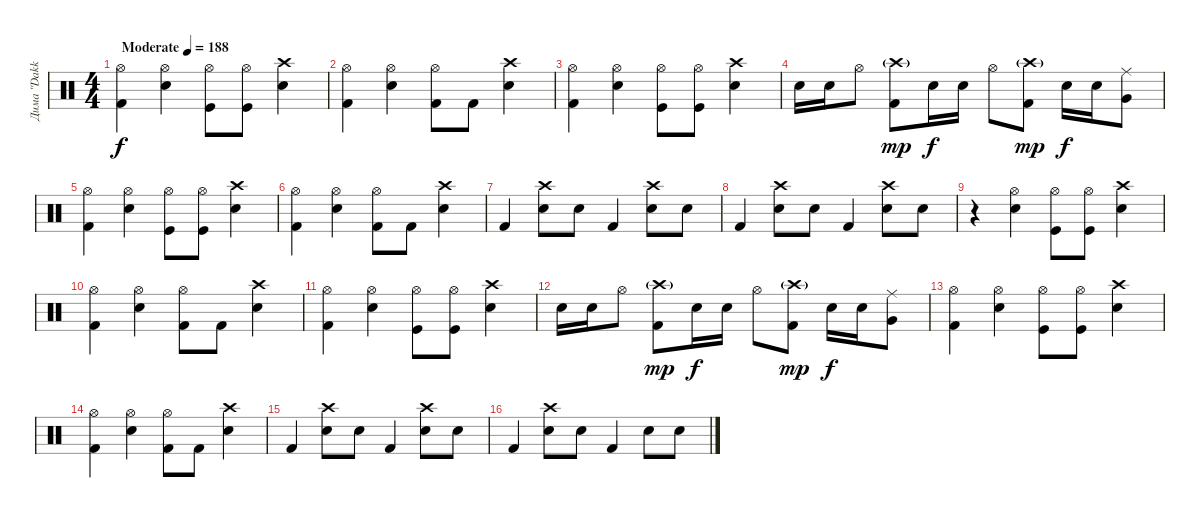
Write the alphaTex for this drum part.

\track ("Дима \"Dakkar\" Кеменов" "Дима \"Dakk") {instrument percussion}
\staff
\articulation defaults
\ts (4 4)
\tempo (188 "Moderate")
\clef neutral
\ks c
("Hi-Hat (open)" "Kick (hit) 2").4{dy f} ("Hi-Hat (open)" "Electric Snare (hit)").4 ("Hi-Hat (open)" "Kick (hit)").8 ("Hi-Hat (open)" "Kick (hit)").8 ("Crash high (hit)" "Electric Snare (hit)").4 |
("Hi-Hat (open)" "Kick (hit) 2").4 ("Hi-Hat (open)" "Electric Snare (hit)").4 ("Hi-Hat (open)" "Kick (hit) 2").8 "Kick (hit) 2".8 ("Crash high (hit)" "Electric Snare (hit)").4 |
("Hi-Hat (open)" "Kick (hit) 2").4 ("Hi-Hat (open)" "Electric Snare (hit)").4 ("Hi-Hat (open)" "Kick (hit)").8 ("Hi-Hat (open)" "Kick (hit)").8 ("Crash high (hit)" "Electric Snare (hit)").4 |
"Electric Snare (hit)".16 "Electric Snare (hit)".16 "Hi-Hat (open)".8 ("Crash high (hit)"{g} "Kick (hit) 2").8{dy mp} "Electric Snare (hit)".16{dy f} "Electric Snare (hit)".16 "Hi-Hat (open)".8 ("Crash high (hit)"{g} "Kick (hit) 2").8{dy mp} "Electric Snare (hit)".16{dy f} "Electric Snare (hit)".16 ("Ride (middle)" "Very Low Tom (hit)").8 |
("Hi-Hat (open)" "Kick (hit) 2").4 ("Hi-Hat (open)" "Electric Snare (hit)").4 ("Hi-Hat (open)" "Kick (hit)").8 ("Hi-Hat (open)" "Kick (hit)").8 ("Crash high (hit)" "Electric Snare (hit)").4 |
("Hi-Hat (open)" "Kick (hit) 2").4 ("Hi-Hat (open)" "Electric Snare (hit)").4 ("Hi-Hat (open)" "Kick (hit) 2").8 "Kick (hit) 2".8 ("Crash high (hit)" "Electric Snare (hit)").4 |
"Kick (hit) 2".4 ("Crash high (hit)" "Electric Snare (hit)").8 "Electric Snare (hit)".8 "Kick (hit) 2".4 ("Crash high (hit)" "Electric Snare (hit)").8 "Electric Snare (hit)".8 |
"Kick (hit) 2".4 ("Crash high (hit)" "Electric Snare (hit)").8 "Electric Snare (hit)".8 "Kick (hit) 2".4 ("Crash high (hit)" "Electric Snare (hit)").8 "Electric Snare (hit)".8 |
r.4 ("Hi-Hat (open)" "Electric Snare (hit)").4 ("Hi-Hat (open)" "Kick (hit)").8 ("Hi-Hat (open)" "Kick (hit)").8 ("Crash high (hit)" "Electric Snare (hit)").4 |
("Hi-Hat (open)" "Kick (hit) 2").4 ("Hi-Hat (open)" "Electric Snare (hit)").4 ("Hi-Hat (open)" "Kick (hit) 2").8 "Kick (hit) 2".8 ("Crash high (hit)" "Electric Snare (hit)").4 |
("Hi-Hat (open)" "Kick (hit) 2").4 ("Hi-Hat (open)" "Electric Snare (hit)").4 ("Hi-Hat (open)" "Kick (hit)").8 ("Hi-Hat (open)" "Kick (hit)").8 ("Crash high (hit)" "Electric Snare (hit)").4 |
"Electric Snare (hit)".16 "Electric Snare (hit)".16 "Hi-Hat (open)".8 ("Crash high (hit)"{g} "Kick (hit) 2").8{dy mp} "Electric Snare (hit)".16{dy f} "Electric Snare (hit)".16 "Hi-Hat (open)".8 ("Crash high (hit)"{g} "Kick (hit) 2").8{dy mp} "Electric Snare (hit)".16{dy f} "Electric Snare (hit)".16 ("Ride (middle)" "Very Low Tom (hit)").8 |
("Hi-Hat (open)" "Kick (hit) 2").4 ("Hi-Hat (open)" "Electric Snare (hit)").4 ("Hi-Hat (open)" "Kick (hit)").8 ("Hi-Hat (open)" "Kick (hit)").8 ("Crash high (hit)" "Electric Snare (hit)").4 |
("Hi-Hat (open)" "Kick (hit) 2").4 ("Hi-Hat (open)" "Electric Snare (hit)").4 ("Hi-Hat (open)" "Kick (hit) 2").8 "Kick (hit) 2".8 ("Crash high (hit)" "Electric Snare (hit)").4 |
"Kick (hit) 2".4 ("Crash high (hit)" "Electric Snare (hit)").8 "Electric Snare (hit)".8 "Kick (hit) 2".4 ("Crash high (hit)" "Electric Snare (hit)").8 "Electric Snare (hit)".8 |
"Kick (hit) 2".4 ("Crash high (hit)" "Electric Snare (hit)").8 "Electric Snare (hit)".8 "Kick (hit) 2".4 "Electric Snare (hit)".8 "Electric Snare (hit)".8
